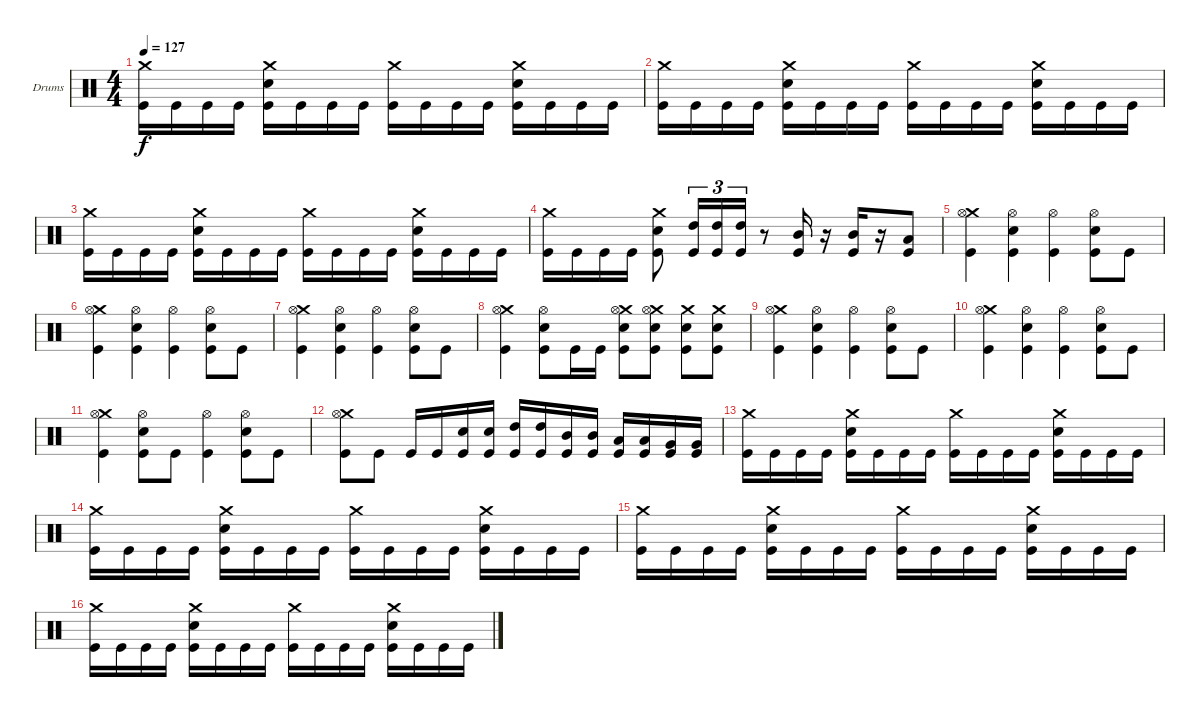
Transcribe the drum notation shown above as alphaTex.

\bracketExtendMode groupsimilarinstruments
\firstSystemTrackNameOrientation horizontal
\otherSystemsTrackNameOrientation horizontal
\track ("Drumkit" "Drums") {instrument percussion}
\staff {score}
\articulation defaults
\ts (4 4)
\tempo 127
\clef neutral
\ks c
("Crash medium (hit)" "Kick (hit)").16{dy f} "Kick (hit)".16 "Kick (hit)".16 "Kick (hit)".16 ("Crash medium (hit)" "Snare (hit) 2" "Kick (hit)").16 "Kick (hit)".16 "Kick (hit)".16 "Kick (hit)".16 ("Crash medium (hit)" "Kick (hit)").16 "Kick (hit)".16 "Kick (hit)".16 "Kick (hit)".16 ("Crash medium (hit)" "Snare (hit) 2" "Kick (hit)").16 "Kick (hit)".16 "Kick (hit)".16 "Kick (hit)".16 |
("Crash medium (hit)" "Kick (hit)").16 "Kick (hit)".16 "Kick (hit)".16 "Kick (hit)".16 ("Crash medium (hit)" "Snare (hit) 2" "Kick (hit)").16 "Kick (hit)".16 "Kick (hit)".16 "Kick (hit)".16 ("Crash medium (hit)" "Kick (hit)").16 "Kick (hit)".16 "Kick (hit)".16 "Kick (hit)".16 ("Crash medium (hit)" "Snare (hit) 2" "Kick (hit)").16 "Kick (hit)".16 "Kick (hit)".16 "Kick (hit)".16 |
("Crash medium (hit)" "Kick (hit)").16 "Kick (hit)".16 "Kick (hit)".16 "Kick (hit)".16 ("Crash medium (hit)" "Snare (hit) 2" "Kick (hit)").16 "Kick (hit)".16 "Kick (hit)".16 "Kick (hit)".16 ("Crash medium (hit)" "Kick (hit)").16 "Kick (hit)".16 "Kick (hit)".16 "Kick (hit)".16 ("Crash medium (hit)" "Snare (hit) 2" "Kick (hit)").16 "Kick (hit)".16 "Kick (hit)".16 "Kick (hit)".16 |
("Crash medium (hit)" "Kick (hit)").16 "Kick (hit)".16 "Kick (hit)".16 "Kick (hit)".16 ("Crash medium (hit)" "Snare (hit) 2" "Kick (hit)").8 ("High Tom (hit)" "Kick (hit)").16{tu (3 2)} ("High Tom (hit)" "Kick (hit)").16{tu (3 2)} ("High Tom (hit)" "Kick (hit)").16{tu (3 2)} r.8 ("Mid Tom (hit)" "Kick (hit)").16 r.16 ("Mid Tom (hit)" "Kick (hit)").16 r.16 ("Low Tom (hit)" "Kick (hit)").8 |
("Crash medium (hit)" "Hi-Hat (open)" "Kick (hit)").4 ("Hi-Hat (open)" "Snare (hit) 2" "Kick (hit)").4 ("Hi-Hat (open)" "Kick (hit)").4 ("Hi-Hat (open)" "Snare (hit) 2" "Kick (hit)").8 "Kick (hit)".8 |
("Crash medium (hit)" "Hi-Hat (open)" "Kick (hit)").4 ("Hi-Hat (open)" "Snare (hit) 2" "Kick (hit)").4 ("Hi-Hat (open)" "Kick (hit)").4 ("Hi-Hat (open)" "Snare (hit) 2" "Kick (hit)").8 "Kick (hit)".8 |
("Crash medium (hit)" "Hi-Hat (open)" "Kick (hit)").4 ("Hi-Hat (open)" "Snare (hit) 2" "Kick (hit)").4 ("Hi-Hat (open)" "Kick (hit)").4 ("Hi-Hat (open)" "Snare (hit) 2" "Kick (hit)").8 "Kick (hit)".8 |
("Crash medium (hit)" "Hi-Hat (open)" "Kick (hit)").4 ("Hi-Hat (open)" "Snare (hit) 2" "Kick (hit)").8 "Kick (hit)".16 "Kick (hit)".16 ("Crash medium (hit)" "Hi-Hat (open)" "Snare (hit) 2" "Kick (hit)").8 ("Crash medium (hit)" "Hi-Hat (open)" "Snare (hit) 2" "Kick (hit)").8 ("Crash medium (hit)" "Snare (hit) 2" "Kick (hit)").8 ("Crash medium (hit)" "Snare (hit) 2" "Kick (hit)").8 |
("Crash medium (hit)" "Hi-Hat (open)" "Kick (hit)").4 ("Hi-Hat (open)" "Snare (hit) 2" "Kick (hit)").4 ("Hi-Hat (open)" "Kick (hit)").4 ("Hi-Hat (open)" "Snare (hit) 2" "Kick (hit)").8 "Kick (hit)".8 |
("Crash medium (hit)" "Hi-Hat (open)" "Kick (hit)").4 ("Hi-Hat (open)" "Snare (hit) 2" "Kick (hit)").4 ("Hi-Hat (open)" "Kick (hit)").4 ("Hi-Hat (open)" "Snare (hit) 2" "Kick (hit)").8 "Kick (hit)".8 |
("Crash medium (hit)" "Hi-Hat (open)" "Kick (hit)").4 ("Hi-Hat (open)" "Snare (hit) 2" "Kick (hit)").8 "Kick (hit)".8 ("Hi-Hat (open)" "Kick (hit)").4 ("Hi-Hat (open)" "Snare (hit) 2" "Kick (hit)").8 "Kick (hit)".8 |
("Crash medium (hit)" "Hi-Hat (open)" "Kick (hit)").8 "Kick (hit)".8 "Kick (hit)".16 "Kick (hit)".16 ("Snare (hit) 2" "Kick (hit)").16 ("Snare (hit) 2" "Kick (hit)").16 ("High Tom (hit)" "Kick (hit)").16 ("High Tom (hit)" "Kick (hit)").16 ("Mid Tom (hit)" "Kick (hit)").16 ("Mid Tom (hit)" "Kick (hit)").16 ("Low Tom (hit)" "Kick (hit)").16 ("Low Tom (hit)" "Kick (hit)").16 ("Very Low Tom (hit)" "Kick (hit)").16 ("Very Low Tom (hit)" "Kick (hit)").16 |
("Crash medium (hit)" "Kick (hit)").16 "Kick (hit)".16 "Kick (hit)".16 "Kick (hit)".16 ("Crash medium (hit)" "Snare (hit) 2" "Kick (hit)").16 "Kick (hit)".16 "Kick (hit)".16 "Kick (hit)".16 ("Crash medium (hit)" "Kick (hit)").16 "Kick (hit)".16 "Kick (hit)".16 "Kick (hit)".16 ("Crash medium (hit)" "Snare (hit) 2" "Kick (hit)").16 "Kick (hit)".16 "Kick (hit)".16 "Kick (hit)".16 |
("Crash medium (hit)" "Kick (hit)").16 "Kick (hit)".16 "Kick (hit)".16 "Kick (hit)".16 ("Crash medium (hit)" "Snare (hit) 2" "Kick (hit)").16 "Kick (hit)".16 "Kick (hit)".16 "Kick (hit)".16 ("Crash medium (hit)" "Kick (hit)").16 "Kick (hit)".16 "Kick (hit)".16 "Kick (hit)".16 ("Crash medium (hit)" "Snare (hit) 2" "Kick (hit)").16 "Kick (hit)".16 "Kick (hit)".16 "Kick (hit)".16 |
("Crash medium (hit)" "Kick (hit)").16 "Kick (hit)".16 "Kick (hit)".16 "Kick (hit)".16 ("Crash medium (hit)" "Snare (hit) 2" "Kick (hit)").16 "Kick (hit)".16 "Kick (hit)".16 "Kick (hit)".16 ("Crash medium (hit)" "Kick (hit)").16 "Kick (hit)".16 "Kick (hit)".16 "Kick (hit)".16 ("Crash medium (hit)" "Snare (hit) 2" "Kick (hit)").16 "Kick (hit)".16 "Kick (hit)".16 "Kick (hit)".16 |
("Crash medium (hit)" "Kick (hit)").16 "Kick (hit)".16 "Kick (hit)".16 "Kick (hit)".16 ("Crash medium (hit)" "Snare (hit) 2" "Kick (hit)").16 "Kick (hit)".16 "Kick (hit)".16 "Kick (hit)".16 ("Crash medium (hit)" "Kick (hit)").16 "Kick (hit)".16 "Kick (hit)".16 "Kick (hit)".16 ("Crash medium (hit)" "Snare (hit) 2" "Kick (hit)").16 "Kick (hit)".16 "Kick (hit)".16 "Kick (hit)".16
